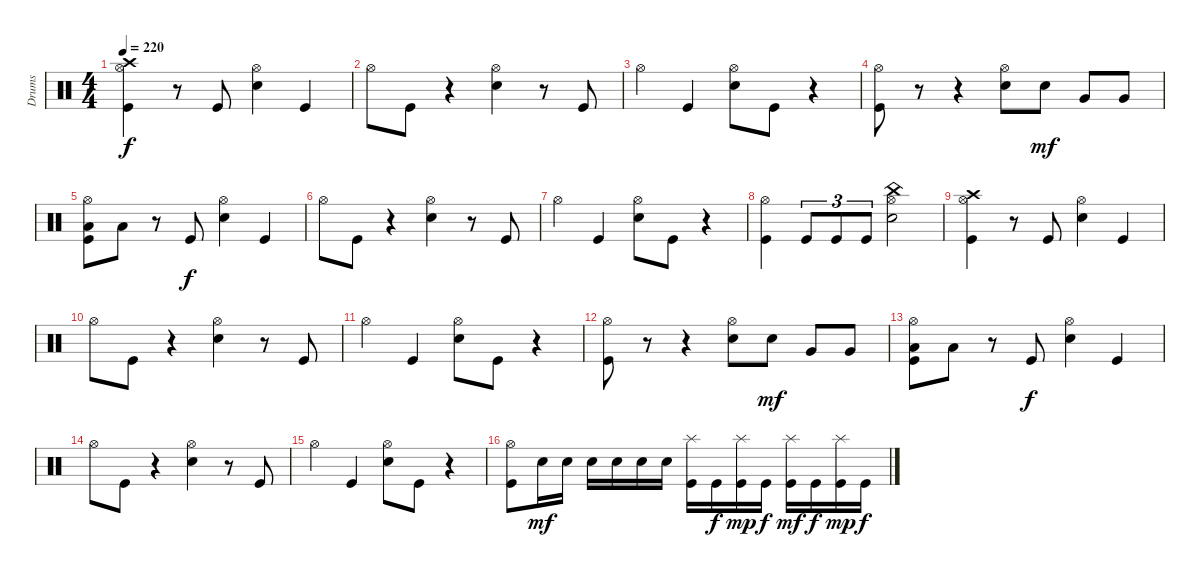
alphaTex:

\track ("Drums" "Drums") {instrument percussion}
\staff {score}
\articulation defaults
\ts (4 4)
\tempo 220
\clef neutral
\ks c
("Crash high (hit)" "Hi-Hat (open)" "Kick (hit)").4{dy f} r.8 "Kick (hit)".8 ("Hi-Hat (open)" "Electric Snare (hit)").4 "Kick (hit)".4 |
"Hi-Hat (open)".8 "Kick (hit)".8 r.4 ("Hi-Hat (open)" "Electric Snare (hit)").4 r.8 "Kick (hit)".8 |
"Hi-Hat (open)".4 "Kick (hit)".4 ("Hi-Hat (open)" "Electric Snare (hit)").8 "Kick (hit)".8 r.4 |
("Hi-Hat (open)" "Kick (hit)").8 r.8 r.4 ("Hi-Hat (open)" "Electric Snare (hit)").8 "Electric Snare (hit)".8{dy mf} "Very Low Tom (hit)".8 "Very Low Tom (hit)".8 |
("Hi-Hat (open)" "Low Floor Tom (hit)" "Kick (hit)").8 "Low Floor Tom (hit)".8 r.8 "Kick (hit)".8{dy f} ("Hi-Hat (open)" "Electric Snare (hit)").4 "Kick (hit)".4 |
"Hi-Hat (open)".8 "Kick (hit)".8 r.4 ("Hi-Hat (open)" "Electric Snare (hit)").4 r.8 "Kick (hit)".8 |
"Hi-Hat (open)".4 "Kick (hit)".4 ("Hi-Hat (open)" "Electric Snare (hit)").8 "Kick (hit)".8 r.4 |
("Hi-Hat (open)" "Kick (hit)").4 "Kick (hit)".8{tu (3 2)} "Kick (hit)".8{tu (3 2)} "Kick (hit)".8{tu (3 2)} ("China (hit)" "Hi-Hat (open)" "Electric Snare (hit)").2 |
("Crash high (hit)" "Hi-Hat (open)" "Kick (hit)").4 r.8 "Kick (hit)".8 ("Hi-Hat (open)" "Electric Snare (hit)").4 "Kick (hit)".4 |
"Hi-Hat (open)".8 "Kick (hit)".8 r.4 ("Hi-Hat (open)" "Electric Snare (hit)").4 r.8 "Kick (hit)".8 |
"Hi-Hat (open)".4 "Kick (hit)".4 ("Hi-Hat (open)" "Electric Snare (hit)").8 "Kick (hit)".8 r.4 |
("Hi-Hat (open)" "Kick (hit)").8 r.8 r.4 ("Hi-Hat (open)" "Electric Snare (hit)").8 "Electric Snare (hit)".8{dy mf} "Very Low Tom (hit)".8 "Very Low Tom (hit)".8 |
("Hi-Hat (open)" "Low Floor Tom (hit)" "Kick (hit)").8 "Low Floor Tom (hit)".8 r.8 "Kick (hit)".8{dy f} ("Hi-Hat (open)" "Electric Snare (hit)").4 "Kick (hit)".4 |
"Hi-Hat (open)".8 "Kick (hit)".8 r.4 ("Hi-Hat (open)" "Electric Snare (hit)").4 r.8 "Kick (hit)".8 |
"Hi-Hat (open)".4 "Kick (hit)".4 ("Hi-Hat (open)" "Electric Snare (hit)").8 "Kick (hit)".8 r.4 |
("Hi-Hat (open)" "Kick (hit)").8 "Electric Snare (hit)".16{dy mf} "Electric Snare (hit)".16 "Electric Snare (hit)".16 "Electric Snare (hit)".16 "Electric Snare (hit)".16 "Electric Snare (hit)".16 ("Splash (hit)" "Kick (hit)").16 "Kick (hit)".16{dy f} ("Splash (hit)" "Kick (hit)").16{dy mp} "Kick (hit)".16{dy f} ("Splash (hit)" "Kick (hit)").16{dy mf} "Kick (hit)".16{dy f} ("Splash (hit)" "Kick (hit)").16{dy mp} "Kick (hit)".16{dy f}
